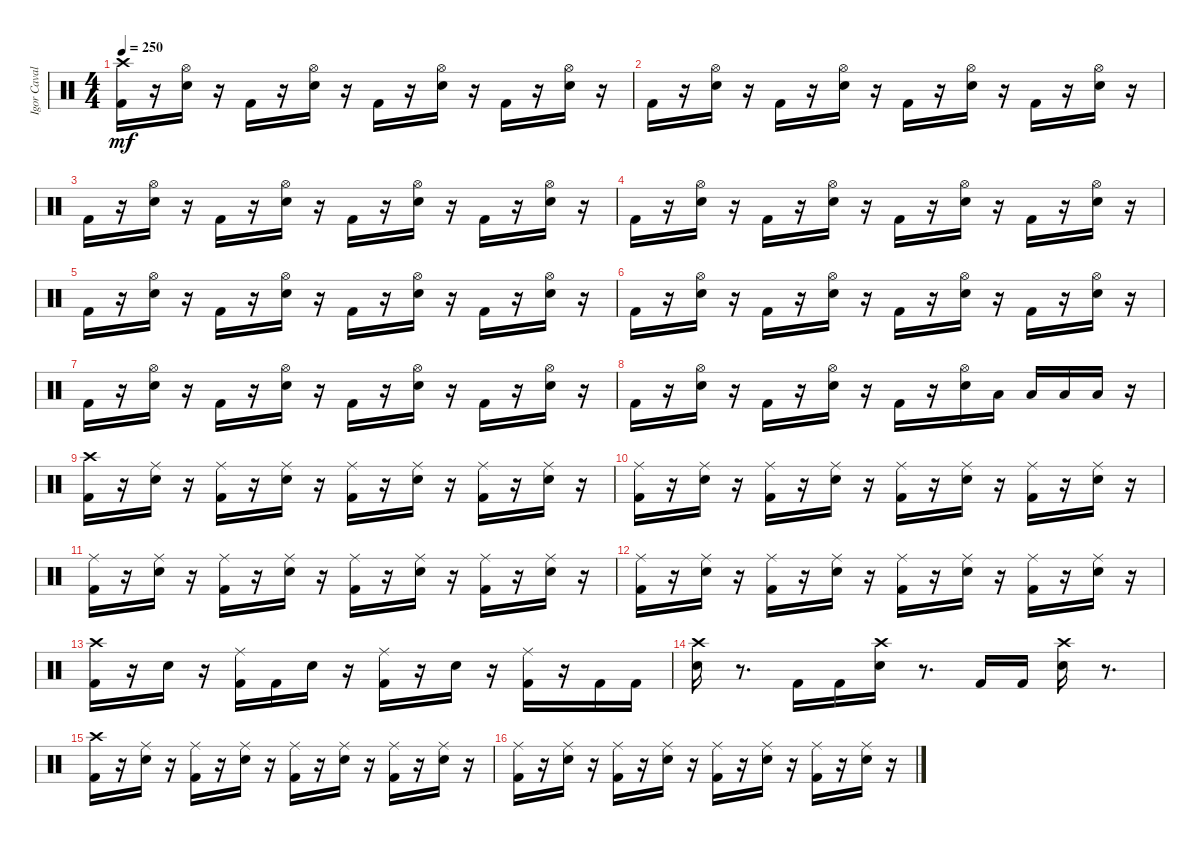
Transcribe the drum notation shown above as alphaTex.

\track ("Igor Cavalera" "Igor Caval") {instrument percussion}
\staff {score}
\articulation defaults
\ts (4 4)
\tempo 250
\clef neutral
\ks c
("Kick (hit) 2" "Crash high (hit)").16{dy mf} r.16 ("Hi-Hat (open)" "Snare (hit) 2").16 r.16 "Kick (hit) 2".16 r.16 ("Hi-Hat (open)" "Snare (hit) 2").16 r.16 "Kick (hit) 2".16 r.16 ("Hi-Hat (open)" "Snare (hit) 2").16 r.16 "Kick (hit) 2".16 r.16 ("Hi-Hat (open)" "Snare (hit) 2").16 r.16 |
"Kick (hit) 2".16 r.16 ("Hi-Hat (open)" "Snare (hit) 2").16 r.16 "Kick (hit) 2".16 r.16 ("Hi-Hat (open)" "Snare (hit) 2").16 r.16 "Kick (hit) 2".16 r.16 ("Hi-Hat (open)" "Snare (hit) 2").16 r.16 "Kick (hit) 2".16 r.16 ("Hi-Hat (open)" "Snare (hit) 2").16 r.16 |
"Kick (hit) 2".16 r.16 ("Hi-Hat (open)" "Snare (hit) 2").16 r.16 "Kick (hit) 2".16 r.16 ("Hi-Hat (open)" "Snare (hit) 2").16 r.16 "Kick (hit) 2".16 r.16 ("Hi-Hat (open)" "Snare (hit) 2").16 r.16 "Kick (hit) 2".16 r.16 ("Hi-Hat (open)" "Snare (hit) 2").16 r.16 |
"Kick (hit) 2".16 r.16 ("Hi-Hat (open)" "Snare (hit) 2").16 r.16 "Kick (hit) 2".16 r.16 ("Hi-Hat (open)" "Snare (hit) 2").16 r.16 "Kick (hit) 2".16 r.16 ("Hi-Hat (open)" "Snare (hit) 2").16 r.16 "Kick (hit) 2".16 r.16 ("Hi-Hat (open)" "Snare (hit) 2").16 r.16 |
"Kick (hit) 2".16 r.16 ("Hi-Hat (open)" "Snare (hit) 2").16 r.16 "Kick (hit) 2".16 r.16 ("Hi-Hat (open)" "Snare (hit) 2").16 r.16 "Kick (hit) 2".16 r.16 ("Hi-Hat (open)" "Snare (hit) 2").16 r.16 "Kick (hit) 2".16 r.16 ("Hi-Hat (open)" "Snare (hit) 2").16 r.16 |
"Kick (hit) 2".16 r.16 ("Hi-Hat (open)" "Snare (hit) 2").16 r.16 "Kick (hit) 2".16 r.16 ("Hi-Hat (open)" "Snare (hit) 2").16 r.16 "Kick (hit) 2".16 r.16 ("Hi-Hat (open)" "Snare (hit) 2").16 r.16 "Kick (hit) 2".16 r.16 ("Hi-Hat (open)" "Snare (hit) 2").16 r.16 |
"Kick (hit) 2".16 r.16 ("Hi-Hat (open)" "Snare (hit) 2").16 r.16 "Kick (hit) 2".16 r.16 ("Hi-Hat (open)" "Snare (hit) 2").16 r.16 "Kick (hit) 2".16 r.16 ("Hi-Hat (open)" "Snare (hit) 2").16 r.16 "Kick (hit) 2".16 r.16 ("Hi-Hat (open)" "Snare (hit) 2").16 r.16 |
"Kick (hit) 2".16 r.16 ("Hi-Hat (open)" "Snare (hit) 2").16 r.16 "Kick (hit) 2".16 r.16 ("Hi-Hat (open)" "Snare (hit) 2").16 r.16 "Kick (hit) 2".16 r.16 ("Hi-Hat (open)" "Snare (hit) 2").16 "Low Tom (hit)".16 "Low Tom (hit)".16 "Low Tom (hit)".16 "Low Floor Tom (hit)".16 r.16 |
("Kick (hit) 2" "Crash high (hit)").16 r.16 ("Snare (hit) 2" "Ride (middle)").16 r.16 ("Kick (hit) 2" "Ride (middle)").16 r.16 ("Snare (hit) 2" "Ride (middle)").16 r.16 ("Kick (hit) 2" "Ride (middle)").16 r.16 ("Snare (hit) 2" "Ride (middle)").16 r.16 ("Kick (hit) 2" "Ride (middle)").16 r.16 ("Snare (hit) 2" "Ride (middle)").16 r.16 |
("Kick (hit) 2" "Ride (middle)").16 r.16 ("Snare (hit) 2" "Ride (middle)").16 r.16 ("Kick (hit) 2" "Ride (middle)").16 r.16 ("Snare (hit) 2" "Ride (middle)").16 r.16 ("Kick (hit) 2" "Ride (middle)").16 r.16 ("Snare (hit) 2" "Ride (middle)").16 r.16 ("Kick (hit) 2" "Ride (middle)").16 r.16 ("Snare (hit) 2" "Ride (middle)").16 r.16 |
("Kick (hit) 2" "Ride (middle)").16 r.16 ("Snare (hit) 2" "Ride (middle)").16 r.16 ("Kick (hit) 2" "Ride (middle)").16 r.16 ("Snare (hit) 2" "Ride (middle)").16 r.16 ("Kick (hit) 2" "Ride (middle)").16 r.16 ("Snare (hit) 2" "Ride (middle)").16 r.16 ("Kick (hit) 2" "Ride (middle)").16 r.16 ("Snare (hit) 2" "Ride (middle)").16 r.16 |
("Kick (hit) 2" "Ride (middle)").16 r.16 ("Snare (hit) 2" "Ride (middle)").16 r.16 ("Kick (hit) 2" "Ride (middle)").16 r.16 ("Snare (hit) 2" "Ride (middle)").16 r.16 ("Kick (hit) 2" "Ride (middle)").16 r.16 ("Snare (hit) 2" "Ride (middle)").16 r.16 ("Kick (hit) 2" "Ride (middle)").16 r.16 ("Snare (hit) 2" "Ride (middle)").16 r.16 |
("Crash high (hit)" "Kick (hit) 2").16 r.16 "Snare (hit) 2".16 r.16 ("Kick (hit) 2" "Ride (middle)").16 "Kick (hit) 2".16 "Snare (hit) 2".16 r.16 ("Kick (hit) 2" "Ride (middle)").16 r.16 "Snare (hit) 2".16 r.16 ("Kick (hit) 2" "Ride (middle)").16 r.16 "Kick (hit) 2".16 "Kick (hit) 2".16 |
("Crash high (hit)" "Snare (hit) 2").16 r.8{d} "Kick (hit) 2".16 "Kick (hit) 2".16 ("Snare (hit) 2" "Crash high (hit)").16 r.8{d} "Kick (hit) 2".16 "Kick (hit) 2".16 ("Snare (hit) 2" "Crash high (hit)").16 r.8{d} |
("Kick (hit) 2" "Crash high (hit)").16 r.16 ("Snare (hit) 2" "Ride (middle)").16 r.16 ("Kick (hit) 2" "Ride (middle)").16 r.16 ("Snare (hit) 2" "Ride (middle)").16 r.16 ("Kick (hit) 2" "Ride (middle)").16 r.16 ("Snare (hit) 2" "Ride (middle)").16 r.16 ("Kick (hit) 2" "Ride (middle)").16 r.16 ("Snare (hit) 2" "Ride (middle)").16 r.16 |
("Kick (hit) 2" "Ride (middle)").16 r.16 ("Snare (hit) 2" "Ride (middle)").16 r.16 ("Kick (hit) 2" "Ride (middle)").16 r.16 ("Snare (hit) 2" "Ride (middle)").16 r.16 ("Kick (hit) 2" "Ride (middle)").16 r.16 ("Snare (hit) 2" "Ride (middle)").16 r.16 ("Kick (hit) 2" "Ride (middle)").16 r.16 ("Snare (hit) 2" "Ride (middle)").16 r.16
